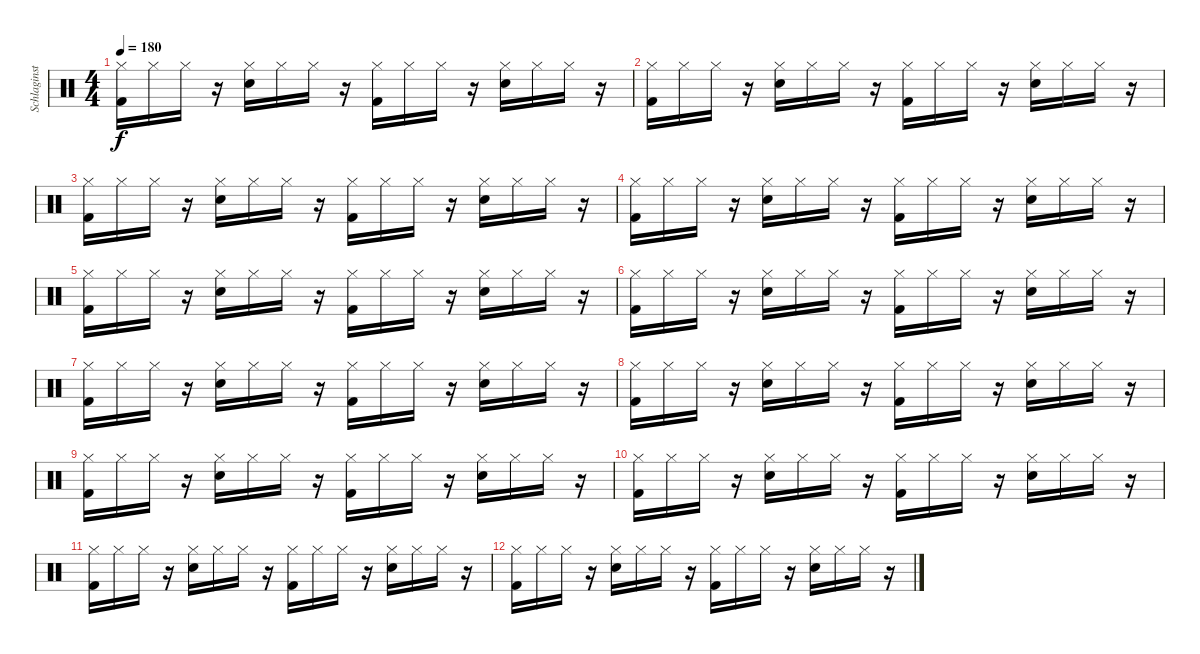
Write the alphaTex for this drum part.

\track ("Schlaginstrumente - Auswahl" "Schlaginst") {instrument percussion}
\staff {score}
\articulation defaults
\ts (4 4)
\tempo 180
\clef neutral
\ks c
("Hi-Hat (closed)" "Kick (hit) 2").16{dy f} "Hi-Hat (closed)".16 "Hi-Hat (closed)".16 r.16 ("Hi-Hat (closed)" "Snare (hit) 2").16 "Hi-Hat (closed)".16 "Hi-Hat (closed)".16 r.16 ("Hi-Hat (closed)" "Kick (hit) 2").16 "Hi-Hat (closed)".16 "Hi-Hat (closed)".16 r.16 ("Hi-Hat (closed)" "Snare (hit) 2").16 "Hi-Hat (closed)".16 "Hi-Hat (closed)".16 r.16 |
("Hi-Hat (closed)" "Kick (hit) 2").16 "Hi-Hat (closed)".16 "Hi-Hat (closed)".16 r.16 ("Hi-Hat (closed)" "Snare (hit) 2").16 "Hi-Hat (closed)".16 "Hi-Hat (closed)".16 r.16 ("Hi-Hat (closed)" "Kick (hit) 2").16 "Hi-Hat (closed)".16 "Hi-Hat (closed)".16 r.16 ("Hi-Hat (closed)" "Snare (hit) 2").16 "Hi-Hat (closed)".16 "Hi-Hat (closed)".16 r.16 |
("Hi-Hat (closed)" "Kick (hit) 2").16 "Hi-Hat (closed)".16 "Hi-Hat (closed)".16 r.16 ("Hi-Hat (closed)" "Snare (hit) 2").16 "Hi-Hat (closed)".16 "Hi-Hat (closed)".16 r.16 ("Hi-Hat (closed)" "Kick (hit) 2").16 "Hi-Hat (closed)".16 "Hi-Hat (closed)".16 r.16 ("Hi-Hat (closed)" "Snare (hit) 2").16 "Hi-Hat (closed)".16 "Hi-Hat (closed)".16 r.16 |
("Hi-Hat (closed)" "Kick (hit) 2").16 "Hi-Hat (closed)".16 "Hi-Hat (closed)".16 r.16 ("Hi-Hat (closed)" "Snare (hit) 2").16 "Hi-Hat (closed)".16 "Hi-Hat (closed)".16 r.16 ("Hi-Hat (closed)" "Kick (hit) 2").16 "Hi-Hat (closed)".16 "Hi-Hat (closed)".16 r.16 ("Hi-Hat (closed)" "Snare (hit) 2").16 "Hi-Hat (closed)".16 "Hi-Hat (closed)".16 r.16 |
("Hi-Hat (closed)" "Kick (hit) 2").16 "Hi-Hat (closed)".16 "Hi-Hat (closed)".16 r.16 ("Hi-Hat (closed)" "Snare (hit) 2").16 "Hi-Hat (closed)".16 "Hi-Hat (closed)".16 r.16 ("Hi-Hat (closed)" "Kick (hit) 2").16 "Hi-Hat (closed)".16 "Hi-Hat (closed)".16 r.16 ("Hi-Hat (closed)" "Snare (hit) 2").16 "Hi-Hat (closed)".16 "Hi-Hat (closed)".16 r.16 |
("Hi-Hat (closed)" "Kick (hit) 2").16 "Hi-Hat (closed)".16 "Hi-Hat (closed)".16 r.16 ("Hi-Hat (closed)" "Snare (hit) 2").16 "Hi-Hat (closed)".16 "Hi-Hat (closed)".16 r.16 ("Hi-Hat (closed)" "Kick (hit) 2").16 "Hi-Hat (closed)".16 "Hi-Hat (closed)".16 r.16 ("Hi-Hat (closed)" "Snare (hit) 2").16 "Hi-Hat (closed)".16 "Hi-Hat (closed)".16 r.16 |
("Hi-Hat (closed)" "Kick (hit) 2").16 "Hi-Hat (closed)".16 "Hi-Hat (closed)".16 r.16 ("Hi-Hat (closed)" "Snare (hit) 2").16 "Hi-Hat (closed)".16 "Hi-Hat (closed)".16 r.16 ("Hi-Hat (closed)" "Kick (hit) 2").16 "Hi-Hat (closed)".16 "Hi-Hat (closed)".16 r.16 ("Hi-Hat (closed)" "Snare (hit) 2").16 "Hi-Hat (closed)".16 "Hi-Hat (closed)".16 r.16 |
("Hi-Hat (closed)" "Kick (hit) 2").16 "Hi-Hat (closed)".16 "Hi-Hat (closed)".16 r.16 ("Hi-Hat (closed)" "Snare (hit) 2").16 "Hi-Hat (closed)".16 "Hi-Hat (closed)".16 r.16 ("Hi-Hat (closed)" "Kick (hit) 2").16 "Hi-Hat (closed)".16 "Hi-Hat (closed)".16 r.16 ("Hi-Hat (closed)" "Snare (hit) 2").16 "Hi-Hat (closed)".16 "Hi-Hat (closed)".16 r.16 |
("Hi-Hat (closed)" "Kick (hit) 2").16 "Hi-Hat (closed)".16 "Hi-Hat (closed)".16 r.16 ("Hi-Hat (closed)" "Snare (hit) 2").16 "Hi-Hat (closed)".16 "Hi-Hat (closed)".16 r.16 ("Hi-Hat (closed)" "Kick (hit) 2").16 "Hi-Hat (closed)".16 "Hi-Hat (closed)".16 r.16 ("Hi-Hat (closed)" "Snare (hit) 2").16 "Hi-Hat (closed)".16 "Hi-Hat (closed)".16 r.16 |
("Hi-Hat (closed)" "Kick (hit) 2").16 "Hi-Hat (closed)".16 "Hi-Hat (closed)".16 r.16 ("Hi-Hat (closed)" "Snare (hit) 2").16 "Hi-Hat (closed)".16 "Hi-Hat (closed)".16 r.16 ("Hi-Hat (closed)" "Kick (hit) 2").16 "Hi-Hat (closed)".16 "Hi-Hat (closed)".16 r.16 ("Hi-Hat (closed)" "Snare (hit) 2").16 "Hi-Hat (closed)".16 "Hi-Hat (closed)".16 r.16 |
("Hi-Hat (closed)" "Kick (hit) 2").16 "Hi-Hat (closed)".16 "Hi-Hat (closed)".16 r.16 ("Hi-Hat (closed)" "Snare (hit) 2").16 "Hi-Hat (closed)".16 "Hi-Hat (closed)".16 r.16 ("Hi-Hat (closed)" "Kick (hit) 2").16 "Hi-Hat (closed)".16 "Hi-Hat (closed)".16 r.16 ("Hi-Hat (closed)" "Snare (hit) 2").16 "Hi-Hat (closed)".16 "Hi-Hat (closed)".16 r.16 |
("Hi-Hat (closed)" "Kick (hit) 2").16 "Hi-Hat (closed)".16 "Hi-Hat (closed)".16 r.16 ("Hi-Hat (closed)" "Snare (hit) 2").16 "Hi-Hat (closed)".16 "Hi-Hat (closed)".16 r.16 ("Hi-Hat (closed)" "Kick (hit) 2").16 "Hi-Hat (closed)".16 "Hi-Hat (closed)".16 r.16 ("Hi-Hat (closed)" "Snare (hit) 2").16 "Hi-Hat (closed)".16 "Hi-Hat (closed)".16 r.16
